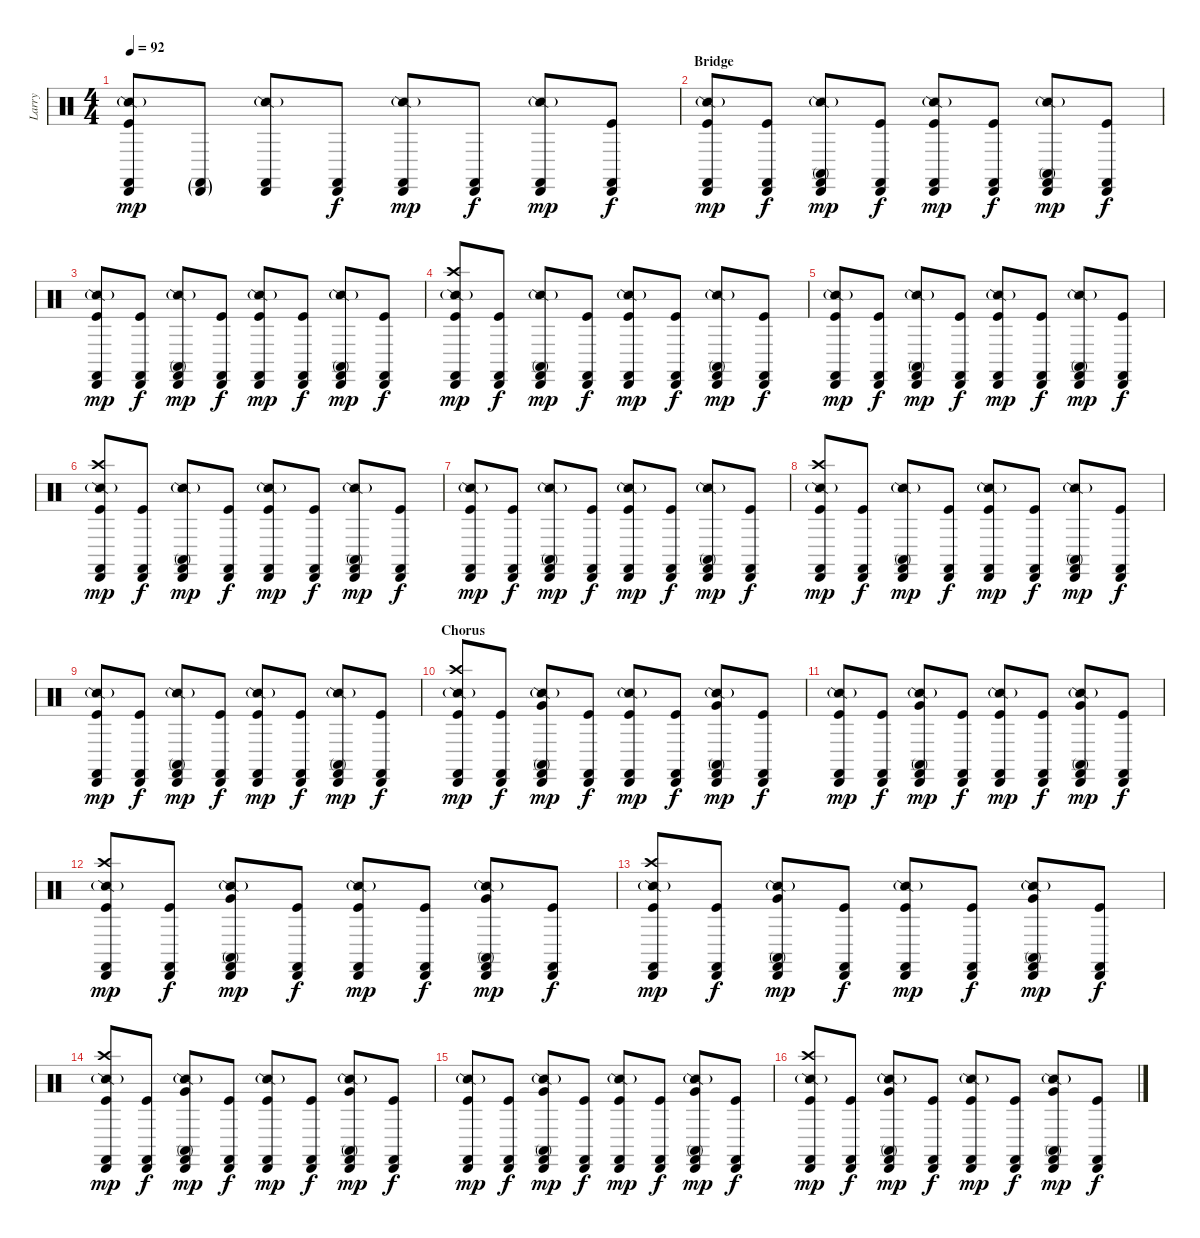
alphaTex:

\track ("Larry" "Larry") {instrument percussion}
\staff {score}
\articulation defaults
\ts (4 4)
\tempo 92
\clef neutral
\ks c
("Snare (side stick) 2"{g} "Castanets (hit)" "Cabasa (hit)" "Kick (hit)").8{dy mp} ("Castanets (hit)"{g} "Cabasa (hit)"{g}).8 ("Snare (side stick) 2"{g} "Castanets (hit)" "Cabasa (hit)").8 ("Castanets (hit)" "Cabasa (hit)").8{dy f} ("Snare (side stick) 2"{g} "Castanets (hit)" "Cabasa (hit)").8{dy mp} ("Castanets (hit)" "Cabasa (hit)").8{dy f} ("Snare (side stick) 2"{g} "Castanets (hit)" "Cabasa (hit)").8{dy mp} ("Castanets (hit)" "Cabasa (hit)" "Kick (hit)").8{dy f} |
\section ("" "Bridge")
("Snare (side stick) 2"{g} "Castanets (hit)" "Cabasa (hit)" "Kick (hit)").8{dy mp} ("Castanets (hit)" "Cabasa (hit)" "Kick (hit)").8{dy f} ("Snare (side stick) 2"{g} "Castanets (hit)" "Cabasa (hit)" "Conga high (mute)").8{dy mp} ("Castanets (hit)" "Cabasa (hit)" "Kick (hit)").8{dy f} ("Snare (side stick) 2"{g} "Castanets (hit)" "Cabasa (hit)" "Kick (hit)").8{dy mp} ("Castanets (hit)" "Cabasa (hit)" "Kick (hit)").8{dy f} ("Snare (side stick) 2"{g} "Castanets (hit)" "Cabasa (hit)" "Conga high (mute)").8{dy mp} ("Castanets (hit)" "Cabasa (hit)" "Kick (hit)").8{dy f} |
("Snare (side stick) 2"{g} "Castanets (hit)" "Cabasa (hit)" "Kick (hit)").8{dy mp} ("Castanets (hit)" "Cabasa (hit)" "Kick (hit)").8{dy f} ("Snare (side stick) 2"{g} "Castanets (hit)" "Cabasa (hit)" "Conga high (mute)").8{dy mp} ("Castanets (hit)" "Cabasa (hit)" "Kick (hit)").8{dy f} ("Snare (side stick) 2"{g} "Castanets (hit)" "Cabasa (hit)" "Kick (hit)").8{dy mp} ("Castanets (hit)" "Cabasa (hit)" "Kick (hit)").8{dy f} ("Snare (side stick) 2"{g} "Castanets (hit)" "Cabasa (hit)" "Conga high (mute)").8{dy mp} ("Castanets (hit)" "Cabasa (hit)" "Kick (hit)").8{dy f} |
("Snare (side stick) 2"{g} "Castanets (hit)" "Cabasa (hit)" "Crash high (hit)" "Kick (hit)").8{dy mp} ("Castanets (hit)" "Cabasa (hit)" "Kick (hit)").8{dy f} ("Snare (side stick) 2"{g} "Castanets (hit)" "Cabasa (hit)" "Conga high (mute)").8{dy mp} ("Castanets (hit)" "Cabasa (hit)" "Kick (hit)").8{dy f} ("Snare (side stick) 2"{g} "Castanets (hit)" "Cabasa (hit)" "Kick (hit)").8{dy mp} ("Castanets (hit)" "Cabasa (hit)" "Kick (hit)").8{dy f} ("Snare (side stick) 2"{g} "Castanets (hit)" "Cabasa (hit)" "Conga high (mute)").8{dy mp} ("Castanets (hit)" "Cabasa (hit)" "Kick (hit)").8{dy f} |
("Snare (side stick) 2"{g} "Castanets (hit)" "Cabasa (hit)" "Kick (hit)").8{dy mp} ("Castanets (hit)" "Cabasa (hit)" "Kick (hit)").8{dy f} ("Snare (side stick) 2"{g} "Castanets (hit)" "Cabasa (hit)" "Conga high (mute)").8{dy mp} ("Castanets (hit)" "Cabasa (hit)" "Kick (hit)").8{dy f} ("Snare (side stick) 2"{g} "Castanets (hit)" "Cabasa (hit)" "Kick (hit)").8{dy mp} ("Castanets (hit)" "Cabasa (hit)" "Kick (hit)").8{dy f} ("Snare (side stick) 2"{g} "Castanets (hit)" "Cabasa (hit)" "Conga high (mute)").8{dy mp} ("Castanets (hit)" "Cabasa (hit)" "Kick (hit)").8{dy f} |
("Snare (side stick) 2"{g} "Castanets (hit)" "Cabasa (hit)" "Crash high (hit)" "Kick (hit)").8{dy mp} ("Castanets (hit)" "Cabasa (hit)" "Kick (hit)").8{dy f} ("Snare (side stick) 2"{g} "Castanets (hit)" "Cabasa (hit)" "Conga high (mute)").8{dy mp} ("Castanets (hit)" "Cabasa (hit)" "Kick (hit)").8{dy f} ("Snare (side stick) 2"{g} "Castanets (hit)" "Cabasa (hit)" "Kick (hit)").8{dy mp} ("Castanets (hit)" "Cabasa (hit)" "Kick (hit)").8{dy f} ("Snare (side stick) 2"{g} "Castanets (hit)" "Cabasa (hit)" "Conga high (mute)").8{dy mp} ("Castanets (hit)" "Cabasa (hit)" "Kick (hit)").8{dy f} |
("Snare (side stick) 2"{g} "Castanets (hit)" "Cabasa (hit)" "Kick (hit)").8{dy mp} ("Castanets (hit)" "Cabasa (hit)" "Kick (hit)").8{dy f} ("Snare (side stick) 2"{g} "Castanets (hit)" "Cabasa (hit)" "Conga high (mute)").8{dy mp} ("Castanets (hit)" "Cabasa (hit)" "Kick (hit)").8{dy f} ("Snare (side stick) 2"{g} "Castanets (hit)" "Cabasa (hit)" "Kick (hit)").8{dy mp} ("Castanets (hit)" "Cabasa (hit)" "Kick (hit)").8{dy f} ("Snare (side stick) 2"{g} "Castanets (hit)" "Cabasa (hit)" "Conga high (mute)").8{dy mp} ("Castanets (hit)" "Cabasa (hit)" "Kick (hit)").8{dy f} |
("Snare (side stick) 2"{g} "Castanets (hit)" "Cabasa (hit)" "Crash high (hit)" "Kick (hit)").8{dy mp} ("Castanets (hit)" "Cabasa (hit)" "Kick (hit)").8{dy f} ("Snare (side stick) 2"{g} "Castanets (hit)" "Cabasa (hit)" "Conga high (mute)").8{dy mp} ("Castanets (hit)" "Cabasa (hit)" "Kick (hit)").8{dy f} ("Snare (side stick) 2"{g} "Castanets (hit)" "Cabasa (hit)" "Kick (hit)").8{dy mp} ("Castanets (hit)" "Cabasa (hit)" "Kick (hit)").8{dy f} ("Snare (side stick) 2"{g} "Castanets (hit)" "Cabasa (hit)" "Conga high (mute)").8{dy mp} ("Castanets (hit)" "Cabasa (hit)" "Kick (hit)").8{dy f} |
("Snare (side stick) 2"{g} "Castanets (hit)" "Cabasa (hit)" "Kick (hit)").8{dy mp} ("Castanets (hit)" "Cabasa (hit)" "Kick (hit)").8{dy f} ("Snare (side stick) 2"{g} "Castanets (hit)" "Cabasa (hit)" "Conga high (mute)").8{dy mp} ("Castanets (hit)" "Cabasa (hit)" "Kick (hit)").8{dy f} ("Snare (side stick) 2"{g} "Castanets (hit)" "Cabasa (hit)" "Kick (hit)").8{dy mp} ("Castanets (hit)" "Cabasa (hit)" "Kick (hit)").8{dy f} ("Snare (side stick) 2"{g} "Castanets (hit)" "Cabasa (hit)" "Conga high (mute)").8{dy mp} ("Castanets (hit)" "Cabasa (hit)" "Kick (hit)").8{dy f} |
\section ("" "Chorus")
("Snare (side stick) 2"{g} "Castanets (hit)" "Cabasa (hit)" "Kick (hit)" "Crash high (hit)").8{dy mp} ("Castanets (hit)" "Cabasa (hit)" "Kick (hit)").8{dy f} ("Snare (side stick) 2"{g} "Castanets (hit)" "Cabasa (hit)" "Conga high (mute)" "Very Low Tom (hit)").8{dy mp} ("Castanets (hit)" "Cabasa (hit)" "Kick (hit)").8{dy f} ("Snare (side stick) 2"{g} "Castanets (hit)" "Cabasa (hit)" "Kick (hit)").8{dy mp} ("Castanets (hit)" "Cabasa (hit)" "Kick (hit)").8{dy f} ("Snare (side stick) 2"{g} "Castanets (hit)" "Cabasa (hit)" "Conga high (mute)" "Very Low Tom (hit)").8{dy mp} ("Castanets (hit)" "Cabasa (hit)" "Kick (hit)").8{dy f} |
("Snare (side stick) 2"{g} "Castanets (hit)" "Cabasa (hit)" "Kick (hit)").8{dy mp} ("Castanets (hit)" "Cabasa (hit)" "Kick (hit)").8{dy f} ("Snare (side stick) 2"{g} "Castanets (hit)" "Cabasa (hit)" "Conga high (mute)" "Very Low Tom (hit)").8{dy mp} ("Castanets (hit)" "Cabasa (hit)" "Kick (hit)").8{dy f} ("Snare (side stick) 2"{g} "Castanets (hit)" "Cabasa (hit)" "Kick (hit)").8{dy mp} ("Castanets (hit)" "Cabasa (hit)" "Kick (hit)").8{dy f} ("Snare (side stick) 2"{g} "Castanets (hit)" "Cabasa (hit)" "Conga high (mute)" "Very Low Tom (hit)").8{dy mp} ("Castanets (hit)" "Cabasa (hit)" "Kick (hit)").8{dy f} |
("Snare (side stick) 2"{g} "Castanets (hit)" "Cabasa (hit)" "Kick (hit)" "Crash high (hit)").8{dy mp} ("Castanets (hit)" "Cabasa (hit)" "Kick (hit)").8{dy f} ("Snare (side stick) 2"{g} "Castanets (hit)" "Cabasa (hit)" "Conga high (mute)" "Very Low Tom (hit)").8{dy mp} ("Castanets (hit)" "Cabasa (hit)" "Kick (hit)").8{dy f} ("Snare (side stick) 2"{g} "Castanets (hit)" "Cabasa (hit)" "Kick (hit)").8{dy mp} ("Castanets (hit)" "Cabasa (hit)" "Kick (hit)").8{dy f} ("Snare (side stick) 2"{g} "Castanets (hit)" "Cabasa (hit)" "Conga high (mute)" "Very Low Tom (hit)").8{dy mp} ("Castanets (hit)" "Cabasa (hit)" "Kick (hit)").8{dy f} |
("Snare (side stick) 2"{g} "Castanets (hit)" "Cabasa (hit)" "Kick (hit)" "Crash high (hit)").8{dy mp} ("Castanets (hit)" "Cabasa (hit)" "Kick (hit)").8{dy f} ("Snare (side stick) 2"{g} "Castanets (hit)" "Cabasa (hit)" "Conga high (mute)" "Very Low Tom (hit)").8{dy mp} ("Castanets (hit)" "Cabasa (hit)" "Kick (hit)").8{dy f} ("Snare (side stick) 2"{g} "Castanets (hit)" "Cabasa (hit)" "Kick (hit)").8{dy mp} ("Castanets (hit)" "Cabasa (hit)" "Kick (hit)").8{dy f} ("Snare (side stick) 2"{g} "Castanets (hit)" "Cabasa (hit)" "Conga high (mute)" "Very Low Tom (hit)").8{dy mp} ("Castanets (hit)" "Cabasa (hit)" "Kick (hit)").8{dy f} |
("Snare (side stick) 2"{g} "Castanets (hit)" "Cabasa (hit)" "Kick (hit)" "Crash high (hit)").8{dy mp} ("Castanets (hit)" "Cabasa (hit)" "Kick (hit)").8{dy f} ("Snare (side stick) 2"{g} "Castanets (hit)" "Cabasa (hit)" "Conga high (mute)" "Very Low Tom (hit)").8{dy mp} ("Castanets (hit)" "Cabasa (hit)" "Kick (hit)").8{dy f} ("Snare (side stick) 2"{g} "Castanets (hit)" "Cabasa (hit)" "Kick (hit)").8{dy mp} ("Castanets (hit)" "Cabasa (hit)" "Kick (hit)").8{dy f} ("Snare (side stick) 2"{g} "Castanets (hit)" "Cabasa (hit)" "Conga high (mute)" "Very Low Tom (hit)").8{dy mp} ("Castanets (hit)" "Cabasa (hit)" "Kick (hit)").8{dy f} |
("Snare (side stick) 2"{g} "Castanets (hit)" "Cabasa (hit)" "Kick (hit)").8{dy mp} ("Castanets (hit)" "Cabasa (hit)" "Kick (hit)").8{dy f} ("Snare (side stick) 2"{g} "Castanets (hit)" "Cabasa (hit)" "Conga high (mute)" "Very Low Tom (hit)").8{dy mp} ("Castanets (hit)" "Cabasa (hit)" "Kick (hit)").8{dy f} ("Snare (side stick) 2"{g} "Castanets (hit)" "Cabasa (hit)" "Kick (hit)").8{dy mp} ("Castanets (hit)" "Cabasa (hit)" "Kick (hit)").8{dy f} ("Snare (side stick) 2"{g} "Castanets (hit)" "Cabasa (hit)" "Conga high (mute)" "Very Low Tom (hit)").8{dy mp} ("Castanets (hit)" "Cabasa (hit)" "Kick (hit)").8{dy f} |
("Snare (side stick) 2"{g} "Castanets (hit)" "Cabasa (hit)" "Kick (hit)" "Crash high (hit)").8{dy mp} ("Castanets (hit)" "Cabasa (hit)" "Kick (hit)").8{dy f} ("Snare (side stick) 2"{g} "Castanets (hit)" "Cabasa (hit)" "Conga high (mute)" "Very Low Tom (hit)").8{dy mp} ("Castanets (hit)" "Cabasa (hit)" "Kick (hit)").8{dy f} ("Snare (side stick) 2"{g} "Castanets (hit)" "Cabasa (hit)" "Kick (hit)").8{dy mp} ("Castanets (hit)" "Cabasa (hit)" "Kick (hit)").8{dy f} ("Snare (side stick) 2"{g} "Castanets (hit)" "Cabasa (hit)" "Conga high (mute)" "Very Low Tom (hit)").8{dy mp} ("Castanets (hit)" "Cabasa (hit)" "Kick (hit)").8{dy f}
